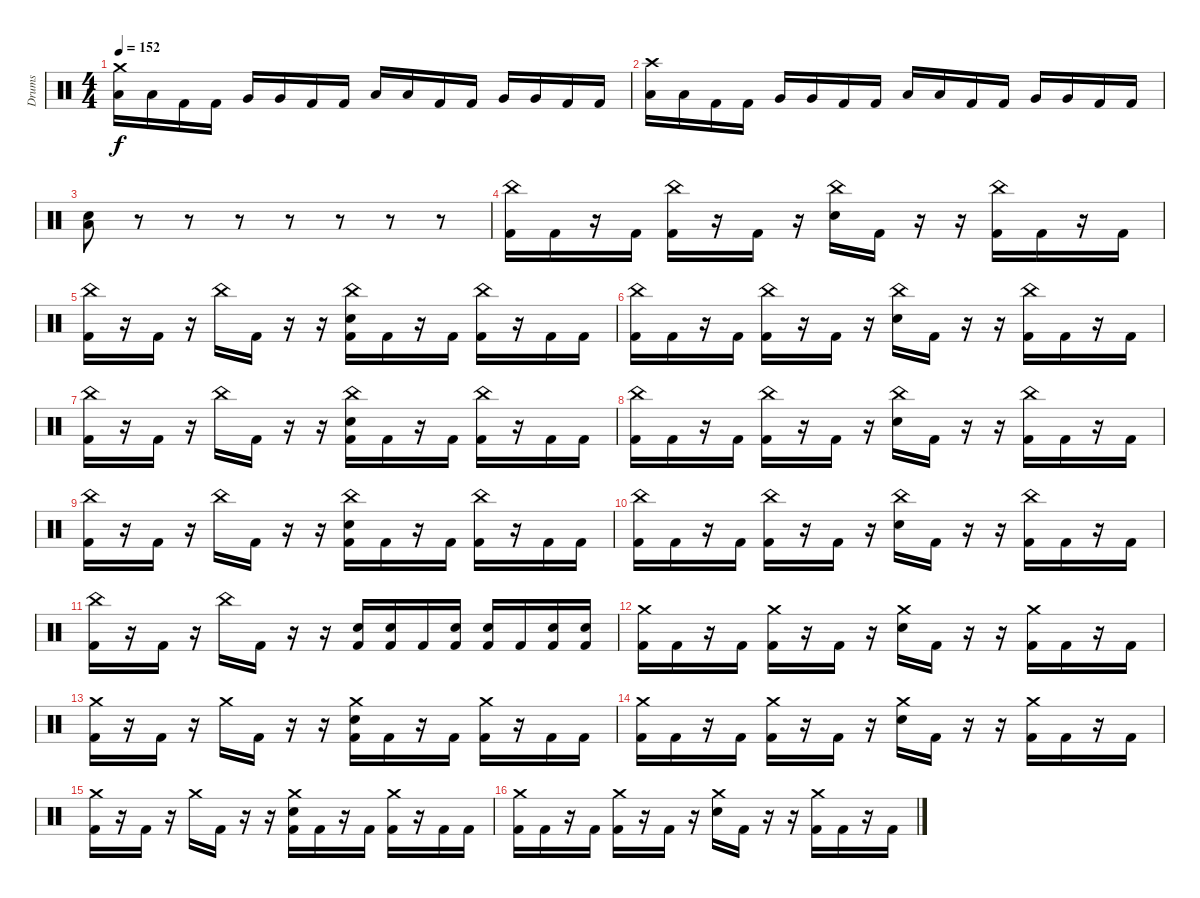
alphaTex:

\track ("Drums" "Drums") {instrument percussion}
\staff {score}
\articulation defaults
\ts (4 4)
\tempo 152
\clef neutral
\ks c
("Crash medium (hit)" "Low Tom (hit)").16{dy f} "Low Tom (hit)".16 "Kick (hit) 2".16 "Kick (hit) 2".16 "Very Low Tom (hit)".16 "Very Low Tom (hit)".16 "Kick (hit) 2".16 "Kick (hit) 2".16 "Low Floor Tom (hit)".16 "Low Floor Tom (hit)".16 "Kick (hit) 2".16 "Kick (hit) 2".16 "Very Low Tom (hit)".16 "Very Low Tom (hit)".16 "Kick (hit) 2".16 "Kick (hit) 2".16 |
("Crash high (hit)" "Low Tom (hit)").16 "Low Tom (hit)".16 "Kick (hit) 2".16 "Kick (hit) 2".16 "Very Low Tom (hit)".16 "Very Low Tom (hit)".16 "Kick (hit) 2".16 "Kick (hit) 2".16 "Low Floor Tom (hit)".16 "Low Floor Tom (hit)".16 "Kick (hit) 2".16 "Kick (hit) 2".16 "Very Low Tom (hit)".16 "Very Low Tom (hit)".16 "Kick (hit) 2".16 "Kick (hit) 2".16 |
("Low Floor Tom (hit)" "Electric Snare (hit)").8 r.8 r.8 r.8 r.8 r.8 r.8 r.8 |
("China (hit)" "Kick (hit) 2").16 "Kick (hit) 2".16 r.16 "Kick (hit) 2".16 ("China (hit)" "Kick (hit) 2").16 r.16 "Kick (hit) 2".16 r.16 ("China (hit)" "Electric Snare (hit)").16 "Kick (hit) 2".16 r.16 r.16 ("China (hit)" "Kick (hit) 2").16 "Kick (hit) 2".16 r.16 "Kick (hit) 2".16 |
("China (hit)" "Kick (hit) 2").16 r.16 "Kick (hit) 2".16 r.16 "China (hit)".16 "Kick (hit) 2".16 r.16 r.16 ("China (hit)" "Electric Snare (hit)" "Kick (hit) 2").16 "Kick (hit) 2".16 r.16 "Kick (hit) 2".16 ("China (hit)" "Kick (hit) 2").16 r.16 "Kick (hit) 2".16 "Kick (hit) 2".16 |
("China (hit)" "Kick (hit) 2").16 "Kick (hit) 2".16 r.16 "Kick (hit) 2".16 ("China (hit)" "Kick (hit) 2").16 r.16 "Kick (hit) 2".16 r.16 ("China (hit)" "Electric Snare (hit)").16 "Kick (hit) 2".16 r.16 r.16 ("China (hit)" "Kick (hit) 2").16 "Kick (hit) 2".16 r.16 "Kick (hit) 2".16 |
("China (hit)" "Kick (hit) 2").16 r.16 "Kick (hit) 2".16 r.16 "China (hit)".16 "Kick (hit) 2".16 r.16 r.16 ("China (hit)" "Electric Snare (hit)" "Kick (hit) 2").16 "Kick (hit) 2".16 r.16 "Kick (hit) 2".16 ("China (hit)" "Kick (hit) 2").16 r.16 "Kick (hit) 2".16 "Kick (hit) 2".16 |
("China (hit)" "Kick (hit) 2").16 "Kick (hit) 2".16 r.16 "Kick (hit) 2".16 ("China (hit)" "Kick (hit) 2").16 r.16 "Kick (hit) 2".16 r.16 ("China (hit)" "Electric Snare (hit)").16 "Kick (hit) 2".16 r.16 r.16 ("China (hit)" "Kick (hit) 2").16 "Kick (hit) 2".16 r.16 "Kick (hit) 2".16 |
("China (hit)" "Kick (hit) 2").16 r.16 "Kick (hit) 2".16 r.16 "China (hit)".16 "Kick (hit) 2".16 r.16 r.16 ("China (hit)" "Electric Snare (hit)" "Kick (hit) 2").16 "Kick (hit) 2".16 r.16 "Kick (hit) 2".16 ("China (hit)" "Kick (hit) 2").16 r.16 "Kick (hit) 2".16 "Kick (hit) 2".16 |
("China (hit)" "Kick (hit) 2").16 "Kick (hit) 2".16 r.16 "Kick (hit) 2".16 ("China (hit)" "Kick (hit) 2").16 r.16 "Kick (hit) 2".16 r.16 ("China (hit)" "Electric Snare (hit)").16 "Kick (hit) 2".16 r.16 r.16 ("China (hit)" "Kick (hit) 2").16 "Kick (hit) 2".16 r.16 "Kick (hit) 2".16 |
("China (hit)" "Kick (hit) 2").16 r.16 "Kick (hit) 2".16 r.16 "China (hit)".16 "Kick (hit) 2".16 r.16 r.16 ("Electric Snare (hit)" "Kick (hit) 2").16 ("Electric Snare (hit)" "Kick (hit) 2").16 "Kick (hit) 2".16 ("Electric Snare (hit)" "Kick (hit) 2").16 ("Electric Snare (hit)" "Kick (hit) 2").16 "Kick (hit) 2".16 ("Electric Snare (hit)" "Kick (hit) 2").16 ("Electric Snare (hit)" "Kick (hit) 2").16 |
("Crash medium (hit)" "Kick (hit) 2").16 "Kick (hit) 2".16 r.16 "Kick (hit) 2".16 ("Crash medium (hit)" "Kick (hit) 2").16 r.16 "Kick (hit) 2".16 r.16 ("Crash medium (hit)" "Electric Snare (hit)").16 "Kick (hit) 2".16 r.16 r.16 ("Crash medium (hit)" "Kick (hit) 2").16 "Kick (hit) 2".16 r.16 "Kick (hit) 2".16 |
("Crash medium (hit)" "Kick (hit) 2").16 r.16 "Kick (hit) 2".16 r.16 "Crash medium (hit)".16 "Kick (hit) 2".16 r.16 r.16 ("Crash medium (hit)" "Electric Snare (hit)" "Kick (hit) 2").16 "Kick (hit) 2".16 r.16 "Kick (hit) 2".16 ("Crash medium (hit)" "Kick (hit) 2").16 r.16 "Kick (hit) 2".16 "Kick (hit) 2".16 |
("Crash medium (hit)" "Kick (hit) 2").16 "Kick (hit) 2".16 r.16 "Kick (hit) 2".16 ("Crash medium (hit)" "Kick (hit) 2").16 r.16 "Kick (hit) 2".16 r.16 ("Crash medium (hit)" "Electric Snare (hit)").16 "Kick (hit) 2".16 r.16 r.16 ("Crash medium (hit)" "Kick (hit) 2").16 "Kick (hit) 2".16 r.16 "Kick (hit) 2".16 |
("Crash medium (hit)" "Kick (hit) 2").16 r.16 "Kick (hit) 2".16 r.16 "Crash medium (hit)".16 "Kick (hit) 2".16 r.16 r.16 ("Crash medium (hit)" "Electric Snare (hit)" "Kick (hit) 2").16 "Kick (hit) 2".16 r.16 "Kick (hit) 2".16 ("Crash medium (hit)" "Kick (hit) 2").16 r.16 "Kick (hit) 2".16 "Kick (hit) 2".16 |
("Crash medium (hit)" "Kick (hit) 2").16 "Kick (hit) 2".16 r.16 "Kick (hit) 2".16 ("Crash medium (hit)" "Kick (hit) 2").16 r.16 "Kick (hit) 2".16 r.16 ("Crash medium (hit)" "Electric Snare (hit)").16 "Kick (hit) 2".16 r.16 r.16 ("Crash medium (hit)" "Kick (hit) 2").16 "Kick (hit) 2".16 r.16 "Kick (hit) 2".16
